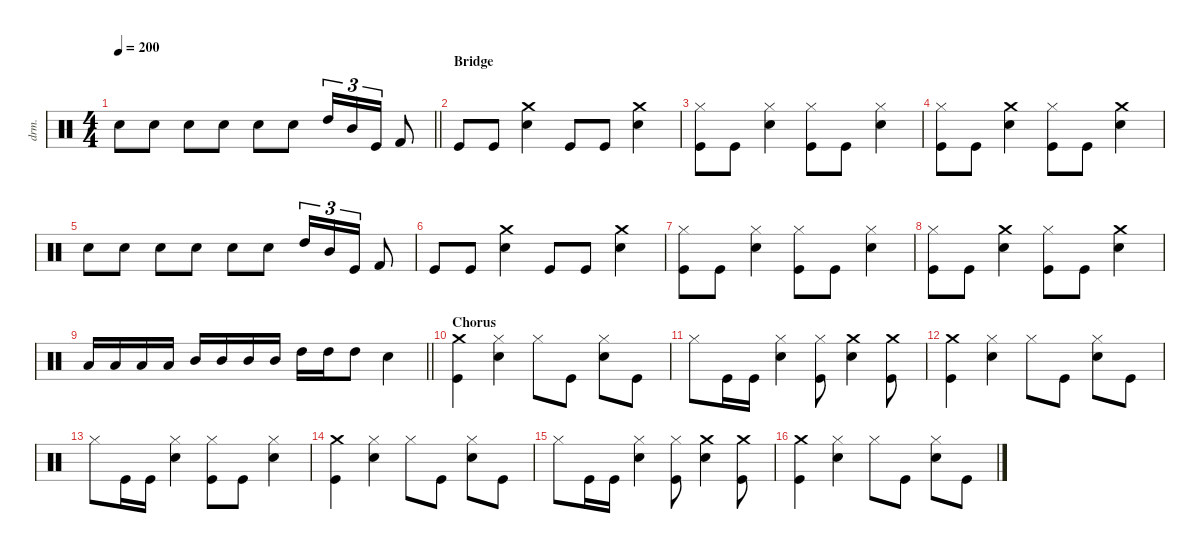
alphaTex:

\defaultSystemsLayout 4
\hideDynamics
\bracketExtendMode nobrackets
\otherSystemsTrackNameOrientation horizontal
\track ("Lars Ulrich (Drums)" "drm.") {instrument percussion}
\staff {score}
\articulation defaults
\ts (4 4)
\tempo 200
\clef neutral
\barLineRight lightlight
\ks c "Snare (hit) 2".8{dy f beam Down} "Snare (hit) 2".8{beam Down} "Snare (hit) 2".8{beam Down} "Snare (hit) 2".8{beam Down} "Snare (hit) 2".8{beam Down} "Snare (hit) 2".8{beam Down} "High Tom (hit)".16{tu (3 2) beam Up} "Mid Tom (hit)".16{tu (3 2) beam Up} "Kick (hit)".16{tu (3 2) beam Up} "Kick (hit) 2".8{beam Up}
|
\section ("" "Bridge")
"Kick (hit)".8{beam Up} "Kick (hit)".8{beam Up} ("Crash medium (hit)" "Snare (hit) 2").4{beam Down} "Kick (hit)".8{beam Up} "Kick (hit)".8{beam Up} ("Crash medium (hit)" "Snare (hit) 2").4{beam Down} |
("Kick (hit)" "Hi-Hat (closed)").8{beam Down} "Kick (hit)".8{beam Down} ("Snare (hit) 2" "Hi-Hat (closed)").4{beam Down} ("Kick (hit)" "Hi-Hat (closed)").8{beam Down} "Kick (hit)".8{beam Down} ("Snare (hit) 2" "Hi-Hat (closed)").4{beam Down} |
("Kick (hit)" "Hi-Hat (closed)").8{beam Down} "Kick (hit)".8{beam Down} ("Snare (hit) 2" "Crash medium (hit)").4{beam Down} ("Kick (hit)" "Hi-Hat (closed)").8{beam Down} "Kick (hit)".8{beam Down} ("Crash medium (hit)" "Snare (hit) 2").4{beam Down} |
"Snare (hit) 2".8{beam Down} "Snare (hit) 2".8{beam Down} "Snare (hit) 2".8{beam Down} "Snare (hit) 2".8{beam Down} "Snare (hit) 2".8{beam Down} "Snare (hit) 2".8{beam Down} "High Tom (hit)".16{tu (3 2) beam Up} "Mid Tom (hit)".16{tu (3 2) beam Up} "Kick (hit)".16{tu (3 2) beam Up} "Kick (hit) 2".8{beam Up} |
"Kick (hit)".8{beam Up} "Kick (hit)".8{beam Up} ("Crash medium (hit)" "Snare (hit) 2").4{beam Down} "Kick (hit)".8{beam Up} "Kick (hit)".8{beam Up} ("Crash medium (hit)" "Snare (hit) 2").4{beam Down} |
("Kick (hit)" "Hi-Hat (closed)").8{beam Down} "Kick (hit)".8{beam Down} ("Snare (hit) 2" "Hi-Hat (closed)").4{beam Down} ("Kick (hit)" "Hi-Hat (closed)").8{beam Down} "Kick (hit)".8{beam Down} ("Snare (hit) 2" "Hi-Hat (closed)").4{beam Down} |
("Kick (hit)" "Hi-Hat (closed)").8{beam Down} "Kick (hit)".8{beam Down} ("Snare (hit) 2" "Crash medium (hit)").4{beam Down} ("Kick (hit)" "Hi-Hat (closed)").8{beam Down} "Kick (hit)".8{beam Down} ("Crash medium (hit)" "Snare (hit) 2").4{beam Down} |
\barLineRight lightlight "Low Tom (hit)".16{beam Up} "Low Tom (hit)".16{beam Up} "Low Tom (hit)".16{beam Up} "Low Tom (hit)".16{beam Up} "Mid Tom (hit)".16{beam Up} "Mid Tom (hit)".16{beam Up} "Mid Tom (hit)".16{beam Up} "Mid Tom (hit)".16{beam Up} "High Tom (hit)".16{beam Down} "High Tom (hit)".16{beam Down} "High Tom (hit)".8{beam Down} "Snare (hit) 2".4{beam Down}
|
\section ("" "Chorus")
("Kick (hit)" "Crash medium (hit)").4{beam Down} ("Hi-Hat (closed)" "Snare (hit) 2").4{beam Down} "Hi-Hat (closed)".8{beam Down} "Kick (hit)".8{beam Down} ("Snare (hit) 2" "Hi-Hat (closed)").8{beam Down} "Kick (hit)".8{beam Down} |
"Hi-Hat (closed)".8{beam Down} "Kick (hit)".16{beam Down} "Kick (hit)".16{beam Down} ("Snare (hit) 2" "Hi-Hat (closed)").4{beam Down} ("Kick (hit)" "Hi-Hat (closed)").8{beam Down} ("Snare (hit) 2" "Crash medium (hit)").4{beam Down} ("Crash medium (hit)" "Kick (hit)").8{beam Down} |
("Kick (hit)" "Crash medium (hit)").4{beam Down} ("Hi-Hat (closed)" "Snare (hit) 2").4{beam Down} "Hi-Hat (closed)".8{beam Down} "Kick (hit)".8{beam Down} ("Snare (hit) 2" "Hi-Hat (closed)").8{beam Down} "Kick (hit)".8{beam Down} |
"Hi-Hat (closed)".8{beam Down} "Kick (hit)".16{beam Down} "Kick (hit)".16{beam Down} ("Snare (hit) 2" "Hi-Hat (closed)").4{beam Down} ("Hi-Hat (closed)" "Kick (hit)").8{beam Down} "Kick (hit)".8{beam Down} ("Snare (hit) 2" "Hi-Hat (closed)").4{beam Down} |
("Kick (hit)" "Crash medium (hit)").4{beam Down} ("Hi-Hat (closed)" "Snare (hit) 2").4{beam Down} "Hi-Hat (closed)".8{beam Down} "Kick (hit)".8{beam Down} ("Snare (hit) 2" "Hi-Hat (closed)").8{beam Down} "Kick (hit)".8{beam Down} |
"Hi-Hat (closed)".8{beam Down} "Kick (hit)".16{beam Down} "Kick (hit)".16{beam Down} ("Snare (hit) 2" "Hi-Hat (closed)").4{beam Down} ("Kick (hit)" "Hi-Hat (closed)").8{beam Down} ("Snare (hit) 2" "Crash medium (hit)").4{beam Down} ("Crash medium (hit)" "Kick (hit)").8{beam Down} |
("Kick (hit)" "Crash medium (hit)").4{beam Down} ("Hi-Hat (closed)" "Snare (hit) 2").4{beam Down} "Hi-Hat (closed)".8{beam Down} "Kick (hit)".8{beam Down} ("Snare (hit) 2" "Hi-Hat (closed)").8{beam Down} "Kick (hit)".8{beam Down}
